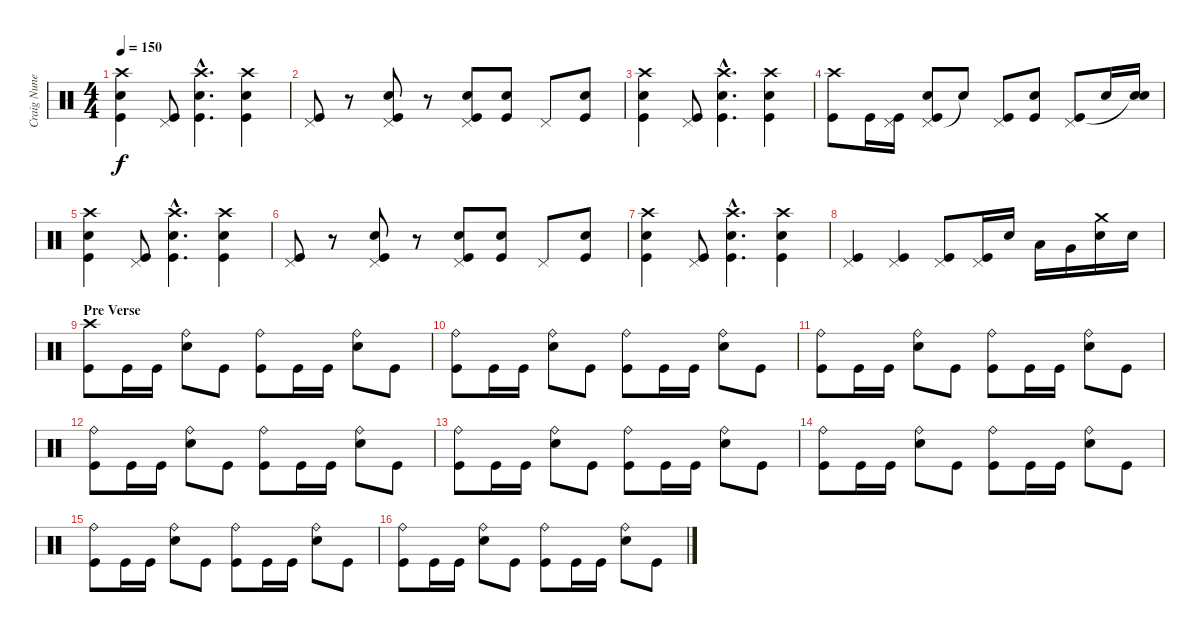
\track ("Craig Nunenmacher" "Craig Nune") {instrument percussion}
\staff {score}
\articulation defaults
\ts (4 4)
\tempo 150
\clef neutral
\ks c
("Crash high (hit)" "Snare (hit) 2" "Kick (hit)").4{dy f} ("Pedal Hi-Hat (hit)" "Kick (hit)").8 ("Crash high (hit)"{hac} "Snare (hit) 2"{hac} "Kick (hit)"{hac}).4{d} ("Crash high (hit)" "Snare (hit) 2" "Kick (hit)").4 |
("Pedal Hi-Hat (hit)" "Kick (hit)").8 r.8 ("Pedal Hi-Hat (hit)" "Snare (hit) 2" "Kick (hit)").8 r.8 ("Pedal Hi-Hat (hit)" "Snare (hit) 2" "Kick (hit)").8 ("Snare (hit) 2" "Kick (hit)").8 "Pedal Hi-Hat (hit)".8 ("Snare (hit) 2" "Kick (hit)").8 |
("Crash high (hit)" "Snare (hit) 2" "Kick (hit)").4 ("Pedal Hi-Hat (hit)" "Kick (hit)").8 ("Crash high (hit)"{hac} "Snare (hit) 2"{hac} "Kick (hit)"{hac}).4{d} ("Crash high (hit)" "Snare (hit) 2" "Kick (hit)").4 |
("Crash high (hit)" "Kick (hit)").8 "Kick (hit)".16 ("Pedal Hi-Hat (hit)" "Kick (hit)").16 ("Pedal Hi-Hat (hit)" "Snare (hit) 2" "Kick (hit)").8 "Snare (hit)"{t}.8 ("Pedal Hi-Hat (hit)" "Kick (hit)").8 ("Snare (hit) 2" "Kick (hit)").8 ("Pedal Hi-Hat (hit)" "Kick (hit)").8 "Snare (hit) 2".16 ("Snare (hit) 2" "Snare (hit)"{t}).16 |
("Crash high (hit)" "Snare (hit) 2" "Kick (hit)").4 ("Pedal Hi-Hat (hit)" "Kick (hit)").8 ("Crash high (hit)"{hac} "Snare (hit) 2"{hac} "Kick (hit)"{hac}).4{d} ("Crash high (hit)" "Snare (hit) 2" "Kick (hit)").4 |
("Pedal Hi-Hat (hit)" "Kick (hit)").8 r.8 ("Pedal Hi-Hat (hit)" "Snare (hit) 2" "Kick (hit)").8 r.8 ("Pedal Hi-Hat (hit)" "Snare (hit) 2" "Kick (hit)").8 ("Snare (hit) 2" "Kick (hit)").8 "Pedal Hi-Hat (hit)".8 ("Snare (hit) 2" "Kick (hit)").8 |
("Crash high (hit)" "Snare (hit) 2" "Kick (hit)").4 ("Pedal Hi-Hat (hit)" "Kick (hit)").8 ("Crash high (hit)"{hac} "Snare (hit) 2"{hac} "Kick (hit)"{hac}).4{d} ("Crash high (hit)" "Snare (hit) 2" "Kick (hit)").4 |
("Pedal Hi-Hat (hit)" "Kick (hit)").4 ("Pedal Hi-Hat (hit)" "Kick (hit)").4 ("Pedal Hi-Hat (hit)" "Kick (hit)").8 ("Pedal Hi-Hat (hit)" "Kick (hit)").16 "Snare (hit) 2".16 "Low Tom (hit)".16 "Very Low Tom (hit)".16 ("Crash medium (hit)" "Snare (hit) 2").16 "Snare (hit) 2".16 |
\section ("" "Pre Verse")
("Crash high (hit)" "Kick (hit)").8 "Kick (hit)".16 "Kick (hit)".16 ("Ride (bell)" "Snare (hit) 2").8 "Kick (hit)".8 ("Ride (bell)" "Kick (hit)").8 "Kick (hit)".16 "Kick (hit)".16 ("Ride (bell)" "Snare (hit) 2").8 "Kick (hit)".8 |
("Ride (bell)" "Kick (hit)").8 "Kick (hit)".16 "Kick (hit)".16 ("Ride (bell)" "Snare (hit) 2").8 "Kick (hit)".8 ("Ride (bell)" "Kick (hit)").8 "Kick (hit)".16 "Kick (hit)".16 ("Ride (bell)" "Snare (hit) 2").8 "Kick (hit)".8 |
("Ride (bell)" "Kick (hit)").8 "Kick (hit)".16 "Kick (hit)".16 ("Ride (bell)" "Snare (hit) 2").8 "Kick (hit)".8 ("Ride (bell)" "Kick (hit)").8 "Kick (hit)".16 "Kick (hit)".16 ("Ride (bell)" "Snare (hit) 2").8 "Kick (hit)".8 |
("Ride (bell)" "Kick (hit)").8 "Kick (hit)".16 "Kick (hit)".16 ("Ride (bell)" "Snare (hit) 2").8 "Kick (hit)".8 ("Ride (bell)" "Kick (hit)").8 "Kick (hit)".16 "Kick (hit)".16 ("Ride (bell)" "Snare (hit) 2").8 "Kick (hit)".8 |
("Ride (bell)" "Kick (hit)").8 "Kick (hit)".16 "Kick (hit)".16 ("Ride (bell)" "Snare (hit) 2").8 "Kick (hit)".8 ("Ride (bell)" "Kick (hit)").8 "Kick (hit)".16 "Kick (hit)".16 ("Ride (bell)" "Snare (hit) 2").8 "Kick (hit)".8 |
("Ride (bell)" "Kick (hit)").8 "Kick (hit)".16 "Kick (hit)".16 ("Ride (bell)" "Snare (hit) 2").8 "Kick (hit)".8 ("Ride (bell)" "Kick (hit)").8 "Kick (hit)".16 "Kick (hit)".16 ("Ride (bell)" "Snare (hit) 2").8 "Kick (hit)".8 |
("Ride (bell)" "Kick (hit)").8 "Kick (hit)".16 "Kick (hit)".16 ("Ride (bell)" "Snare (hit) 2").8 "Kick (hit)".8 ("Ride (bell)" "Kick (hit)").8 "Kick (hit)".16 "Kick (hit)".16 ("Ride (bell)" "Snare (hit) 2").8 "Kick (hit)".8 |
("Ride (bell)" "Kick (hit)").8 "Kick (hit)".16 "Kick (hit)".16 ("Ride (bell)" "Snare (hit) 2").8 "Kick (hit)".8 ("Ride (bell)" "Kick (hit)").8 "Kick (hit)".16 "Kick (hit)".16 ("Ride (bell)" "Snare (hit) 2").8 "Kick (hit)".8
